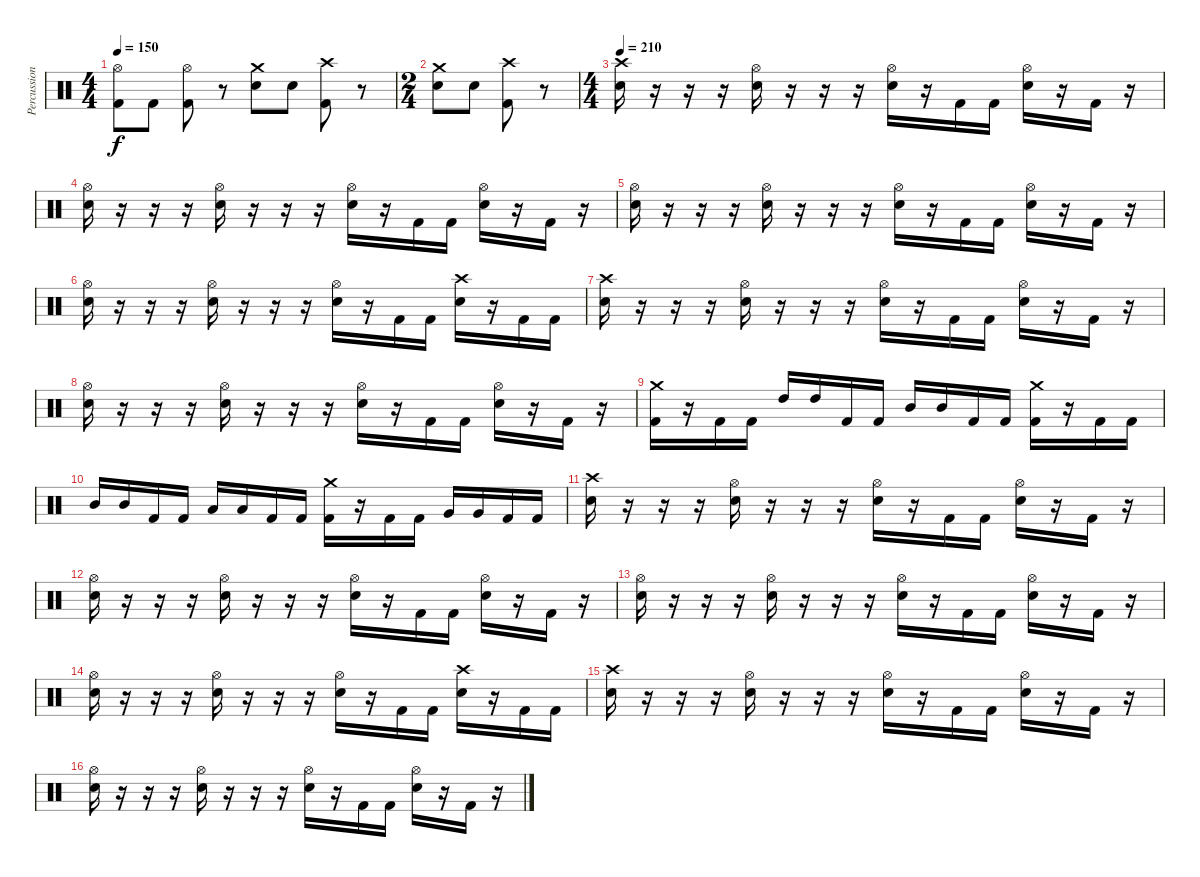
\track ("Percussion" "Percussion") {instrument percussion}
\staff {score}
\articulation defaults
\ts (4 4)
\tempo 150
\clef neutral
\ks c
("Hi-Hat (open)" "Kick (hit) 2").8{dy f} "Kick (hit) 2".8 ("Hi-Hat (open)" "Kick (hit) 2").8 r.8 ("Crash medium (hit)" "Snare (hit) 2").8 "Snare (hit) 2".8 ("Crash high (hit)" "Kick (hit) 2").8 r.8 |
\ts (2 4)
("Crash medium (hit)" "Snare (hit) 2").8 "Snare (hit) 2".8 ("Crash high (hit)" "Kick (hit) 2").8 r.8 |
\ts (4 4)
\tempo 210
("Crash high (hit)" "Snare (hit) 2").16 r.16 r.16 r.16 ("Hi-Hat (open)" "Snare (hit) 2").16 r.16 r.16 r.16 ("Hi-Hat (open)" "Snare (hit) 2").16 r.16 "Kick (hit) 2".16 "Kick (hit) 2".16 ("Hi-Hat (open)" "Snare (hit) 2").16 r.16 "Kick (hit) 2".16 r.16 |
("Hi-Hat (open)" "Snare (hit) 2").16 r.16 r.16 r.16 ("Hi-Hat (open)" "Snare (hit) 2").16 r.16 r.16 r.16 ("Hi-Hat (open)" "Snare (hit) 2").16 r.16 "Kick (hit) 2".16 "Kick (hit) 2".16 ("Hi-Hat (open)" "Snare (hit) 2").16 r.16 "Kick (hit) 2".16 r.16 |
("Hi-Hat (open)" "Snare (hit) 2").16 r.16 r.16 r.16 ("Hi-Hat (open)" "Snare (hit) 2").16 r.16 r.16 r.16 ("Hi-Hat (open)" "Snare (hit) 2").16 r.16 "Kick (hit) 2".16 "Kick (hit) 2".16 ("Hi-Hat (open)" "Snare (hit) 2").16 r.16 "Kick (hit) 2".16 r.16 |
("Hi-Hat (open)" "Snare (hit) 2").16 r.16 r.16 r.16 ("Hi-Hat (open)" "Snare (hit) 2").16 r.16 r.16 r.16 ("Hi-Hat (open)" "Snare (hit) 2").16 r.16 "Kick (hit) 2".16 "Kick (hit) 2".16 ("Crash high (hit)" "Snare (hit) 2").16 r.16 "Kick (hit) 2".16 "Kick (hit) 2".16 |
("Crash high (hit)" "Snare (hit) 2").16 r.16 r.16 r.16 ("Hi-Hat (open)" "Snare (hit) 2").16 r.16 r.16 r.16 ("Hi-Hat (open)" "Snare (hit) 2").16 r.16 "Kick (hit) 2".16 "Kick (hit) 2".16 ("Hi-Hat (open)" "Snare (hit) 2").16 r.16 "Kick (hit) 2".16 r.16 |
("Hi-Hat (open)" "Snare (hit) 2").16 r.16 r.16 r.16 ("Hi-Hat (open)" "Snare (hit) 2").16 r.16 r.16 r.16 ("Hi-Hat (open)" "Snare (hit) 2").16 r.16 "Kick (hit) 2".16 "Kick (hit) 2".16 ("Hi-Hat (open)" "Snare (hit) 2").16 r.16 "Kick (hit) 2".16 r.16 |
("Crash medium (hit)" "Kick (hit) 2").16 r.16 "Kick (hit) 2".16 "Kick (hit) 2".16 "High Tom (hit)".16 "High Tom (hit)".16 "Kick (hit) 2".16 "Kick (hit) 2".16 "Mid Tom (hit)".16 "Mid Tom (hit)".16 "Kick (hit) 2".16 "Kick (hit) 2".16 ("Crash medium (hit)" "Kick (hit) 2").16 r.16 "Kick (hit) 2".16 "Kick (hit) 2".16 |
"Mid Tom (hit)".16 "Mid Tom (hit)".16 "Kick (hit) 2".16 "Kick (hit) 2".16 "Low Tom (hit)".16 "Low Tom (hit)".16 "Kick (hit) 2".16 "Kick (hit) 2".16 ("Crash medium (hit)" "Kick (hit) 2").16 r.16 "Kick (hit) 2".16 "Kick (hit) 2".16 "Very Low Tom (hit)".16 "Very Low Tom (hit)".16 "Kick (hit) 2".16 "Kick (hit) 2".16 |
("Crash high (hit)" "Snare (hit) 2").16 r.16 r.16 r.16 ("Hi-Hat (open)" "Snare (hit) 2").16 r.16 r.16 r.16 ("Hi-Hat (open)" "Snare (hit) 2").16 r.16 "Kick (hit) 2".16 "Kick (hit) 2".16 ("Hi-Hat (open)" "Snare (hit) 2").16 r.16 "Kick (hit) 2".16 r.16 |
("Hi-Hat (open)" "Snare (hit) 2").16 r.16 r.16 r.16 ("Hi-Hat (open)" "Snare (hit) 2").16 r.16 r.16 r.16 ("Hi-Hat (open)" "Snare (hit) 2").16 r.16 "Kick (hit) 2".16 "Kick (hit) 2".16 ("Hi-Hat (open)" "Snare (hit) 2").16 r.16 "Kick (hit) 2".16 r.16 |
("Hi-Hat (open)" "Snare (hit) 2").16 r.16 r.16 r.16 ("Hi-Hat (open)" "Snare (hit) 2").16 r.16 r.16 r.16 ("Hi-Hat (open)" "Snare (hit) 2").16 r.16 "Kick (hit) 2".16 "Kick (hit) 2".16 ("Hi-Hat (open)" "Snare (hit) 2").16 r.16 "Kick (hit) 2".16 r.16 |
("Hi-Hat (open)" "Snare (hit) 2").16 r.16 r.16 r.16 ("Hi-Hat (open)" "Snare (hit) 2").16 r.16 r.16 r.16 ("Hi-Hat (open)" "Snare (hit) 2").16 r.16 "Kick (hit) 2".16 "Kick (hit) 2".16 ("Crash high (hit)" "Snare (hit) 2").16 r.16 "Kick (hit) 2".16 "Kick (hit) 2".16 |
("Crash high (hit)" "Snare (hit) 2").16 r.16 r.16 r.16 ("Hi-Hat (open)" "Snare (hit) 2").16 r.16 r.16 r.16 ("Hi-Hat (open)" "Snare (hit) 2").16 r.16 "Kick (hit) 2".16 "Kick (hit) 2".16 ("Hi-Hat (open)" "Snare (hit) 2").16 r.16 "Kick (hit) 2".16 r.16 |
("Hi-Hat (open)" "Snare (hit) 2").16 r.16 r.16 r.16 ("Hi-Hat (open)" "Snare (hit) 2").16 r.16 r.16 r.16 ("Hi-Hat (open)" "Snare (hit) 2").16 r.16 "Kick (hit) 2".16 "Kick (hit) 2".16 ("Hi-Hat (open)" "Snare (hit) 2").16 r.16 "Kick (hit) 2".16 r.16
